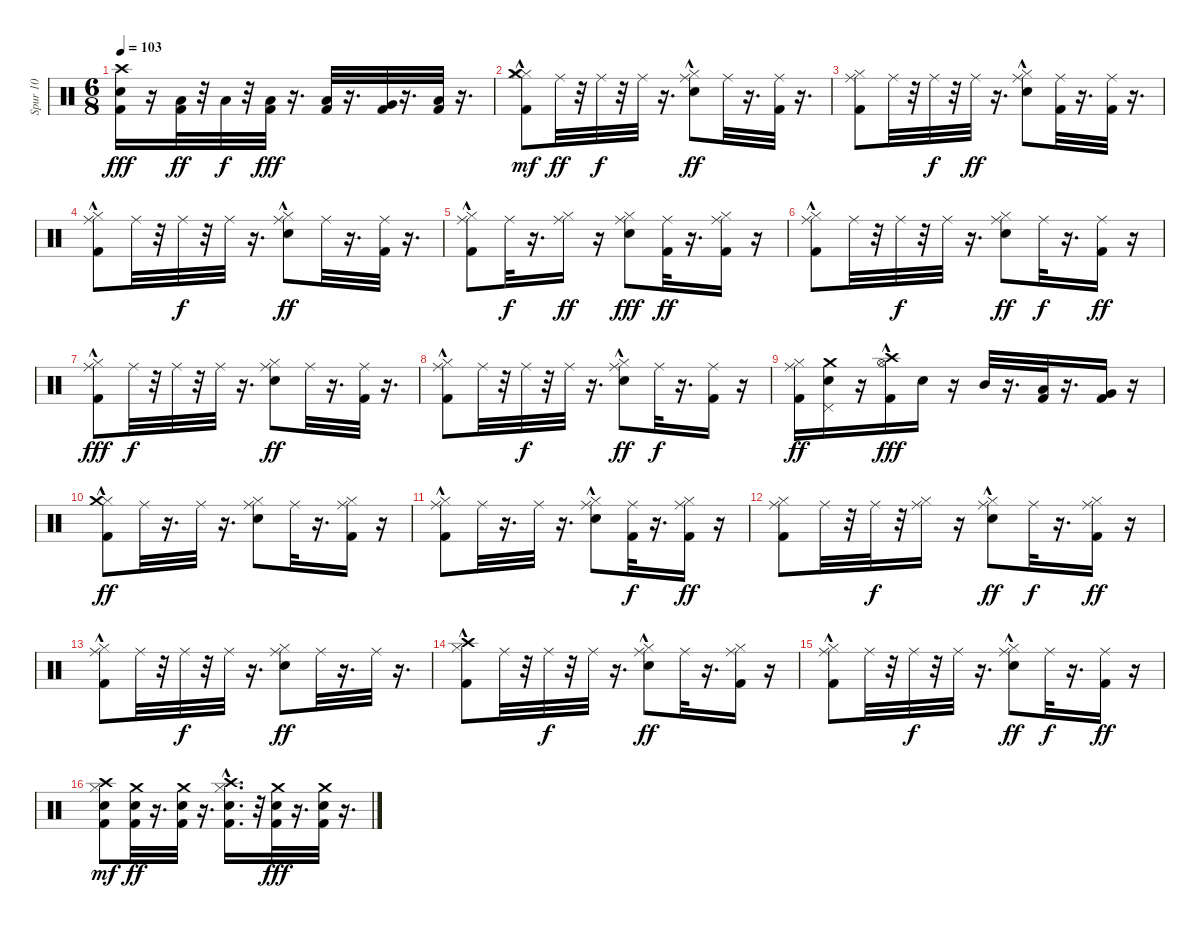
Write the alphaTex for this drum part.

\track ("Spur 10" "Spur 10") {instrument percussion}
\staff {score}
\articulation defaults
\ts (6 8)
\tempo 103
\clef neutral
\ks c
("Kick (hit) 2" "Snare (hit) 2" "Crash high (hit)").16{dy fff} r.16 ("Kick (hit) 2" "Low Tom (hit)").32{dy ff} r.32 "Low Tom (hit)".32{dy f} r.32 ("Kick (hit) 2" "Low Tom (hit)").32{dy fff} r.16{d} ("Kick (hit) 2" "Low Tom (hit)").32 r.16{d} ("Kick (hit) 2" "Very Low Tom (hit)").32 r.16{d} ("Kick (hit) 2" "Low Floor Tom (hit)").32 r.16{d} |
("Kick (hit) 2"{hac} "Hi-Hat (closed)" "Hi-Hat (closed)" "Crash medium (hit)").8{dy mf} "Ride (middle)".32{dy ff} r.32 "Ride (middle)".32{dy f} r.32 "Ride (middle)".32 r.16{d} ("Snare (hit) 2"{hac} "Hi-Hat (closed)" "Ride (middle)").8{dy ff} "Ride (middle)".32 r.16{d} ("Kick (hit) 2" "Ride (middle)").32 r.16{d} |
("Kick (hit) 2" "Hi-Hat (closed)" "Ride (middle)").8 "Ride (middle)".32 r.32 "Ride (middle)".32{dy f} r.32 "Ride (middle)".32{dy ff} r.16{d} ("Snare (hit) 2"{hac} "Hi-Hat (closed)" "Ride (middle)").8 ("Kick (hit) 2" "Ride (middle)").32 r.16{d} ("Kick (hit) 2" "Ride (middle)").32 r.16{d} |
("Kick (hit) 2"{hac} "Hi-Hat (closed)"{hac} "Ride (middle)").8 "Ride (middle)".32 r.32 "Ride (middle)".32{dy f} r.32 "Ride (middle)".32 r.16{d} ("Snare (hit) 2" "Hi-Hat (closed)"{hac} "Ride (middle)").8{dy ff} "Ride (middle)".32 r.16{d} ("Kick (hit) 2" "Ride (middle)").32 r.16{d} |
("Kick (hit) 2"{hac} "Hi-Hat (closed)" "Ride (middle)").8 "Ride (middle)".32{dy f} r.16{d} ("Hi-Hat (closed)" "Ride (middle)").16{dy ff} r.16 ("Snare (hit) 2" "Hi-Hat (closed)" "Ride (middle)").8{dy fff} ("Kick (hit) 2" "Ride (middle)").32{dy ff} r.16{d} ("Kick (hit) 2" "Hi-Hat (closed)" "Ride (middle)").16 r.16 |
("Kick (hit) 2"{hac} "Hi-Hat (closed)" "Ride (middle)").8 "Ride (middle)".32 r.32 "Ride (middle)".32{dy f} r.32 "Ride (middle)".32 r.16{d} ("Snare (hit) 2" "Hi-Hat (closed)" "Ride (middle)").8{dy ff} "Ride (middle)".32{dy f} r.16{d} ("Kick (hit) 2" "Ride (middle)").16{dy ff} r.16 |
("Kick (hit) 2"{hac} "Hi-Hat (closed)"{hac} "Ride (middle)").8{dy fff} "Ride (middle)".32{dy f} r.32 "Ride (middle)".32 r.32 "Ride (middle)".32 r.16{d} ("Snare (hit) 2" "Hi-Hat (closed)" "Ride (middle)").8{dy ff} "Ride (middle)".32 r.16{d} ("Kick (hit) 2" "Ride (middle)").32 r.16{d} |
("Kick (hit) 2"{hac} "Hi-Hat (closed)"{hac} "Ride (middle)").8 "Ride (middle)".32 r.32 "Ride (middle)".32{dy f} r.32 "Ride (middle)".32 r.16{d} ("Snare (hit) 2"{hac} "Hi-Hat (closed)" "Ride (middle)").8{dy ff} "Ride (middle)".32{dy f} r.16{d} ("Kick (hit) 2" "Ride (middle)").16 r.16 |
("Kick (hit) 2" "Hi-Hat (closed)" "Ride (middle)").16{dy ff} ("Snare (hit) 2" "Pedal Hi-Hat (hit)" "Crash medium (hit)").16 r.16 ("Kick (hit) 2"{hac} "Hi-Hat (open)" "Crash high (hit)").16{dy fff} "Snare (hit) 2".16 r.16 "Mid Tom (hit)".32 r.16{d} ("Kick (hit) 2" "Low Tom (hit)").32 r.16{d} ("Kick (hit) 2" "Very Low Tom (hit)").16 r.16 |
("Kick (hit) 2"{hac} "Hi-Hat (closed)" "Crash medium (hit)").8{dy ff} "Ride (middle)".32 r.16{d} "Ride (middle)".32 r.16{d} ("Snare (hit) 2" "Hi-Hat (closed)" "Ride (middle)").8 "Ride (middle)".32 r.16{d} ("Kick (hit) 2" "Hi-Hat (closed)" "Ride (middle)").16 r.16 |
("Kick (hit) 2"{hac} "Hi-Hat (closed)" "Ride (middle)").8 "Ride (middle)".32 r.16{d} "Ride (middle)".32 r.16{d} ("Snare (hit) 2"{hac} "Hi-Hat (closed)" "Ride (middle)").8 ("Kick (hit) 2" "Ride (middle)").32{dy f} r.16{d} ("Kick (hit) 2" "Hi-Hat (closed)" "Ride (middle)").16{dy ff} r.16 |
("Kick (hit) 2" "Hi-Hat (closed)" "Ride (middle)").8 "Ride (middle)".32 r.32 "Ride (middle)".32{dy f} r.32 ("Hi-Hat (closed)" "Ride (middle)").16 r.16 ("Snare (hit) 2"{hac} "Hi-Hat (closed)" "Ride (middle)").8{dy ff} "Ride (middle)".32{dy f} r.16{d} ("Kick (hit) 2" "Hi-Hat (closed)" "Ride (middle)").16{dy ff} r.16 |
("Kick (hit) 2"{hac} "Hi-Hat (closed)" "Ride (middle)").8 "Ride (middle)".32 r.32 "Ride (middle)".32{dy f} r.32 "Ride (middle)".32 r.16{d} ("Snare (hit) 2" "Hi-Hat (closed)" "Ride (middle)").8{dy ff} "Ride (middle)".32 r.16{d} "Ride (middle)".32 r.16{d} |
("Kick (hit) 2"{hac} "Hi-Hat (closed)"{hac} "Crash high (hit)").8 "Ride (middle)".32 r.32 "Ride (middle)".32{dy f} r.32 "Ride (middle)".32 r.16{d} ("Snare (hit) 2" "Hi-Hat (closed)"{hac} "Ride (middle)").8{dy ff} "Ride (middle)".32 r.16{d} ("Kick (hit) 2" "Hi-Hat (closed)" "Ride (middle)").16 r.16 |
("Kick (hit) 2"{hac} "Hi-Hat (closed)" "Ride (middle)").8 "Ride (middle)".32 r.32 "Ride (middle)".32{dy f} r.32 "Ride (middle)".32 r.16{d} ("Snare (hit) 2" "Hi-Hat (closed)"{hac} "Ride (middle)").8{dy ff} "Ride (middle)".32{dy f} r.16{d} ("Kick (hit) 2" "Ride (middle)").16{dy ff} r.16 |
("Kick (hit) 2" "Snare (hit) 2" "Hi-Hat (closed)" "Crash high (hit)").8{dy mf} ("Kick (hit) 2" "Snare (hit) 2" "Crash medium (hit)").32{dy ff} r.16{d} ("Kick (hit) 2" "Snare (hit) 2" "Crash medium (hit)").32 r.16{d} ("Kick (hit) 2" "Snare (hit) 2" "Hi-Hat (closed)"{hac} "Crash high (hit)").16{d} r.32 ("Kick (hit) 2" "Snare (hit) 2" "Crash medium (hit)").32{dy fff} r.16{d} ("Kick (hit) 2" "Snare (hit) 2" "Crash medium (hit)").32 r.16{d}
